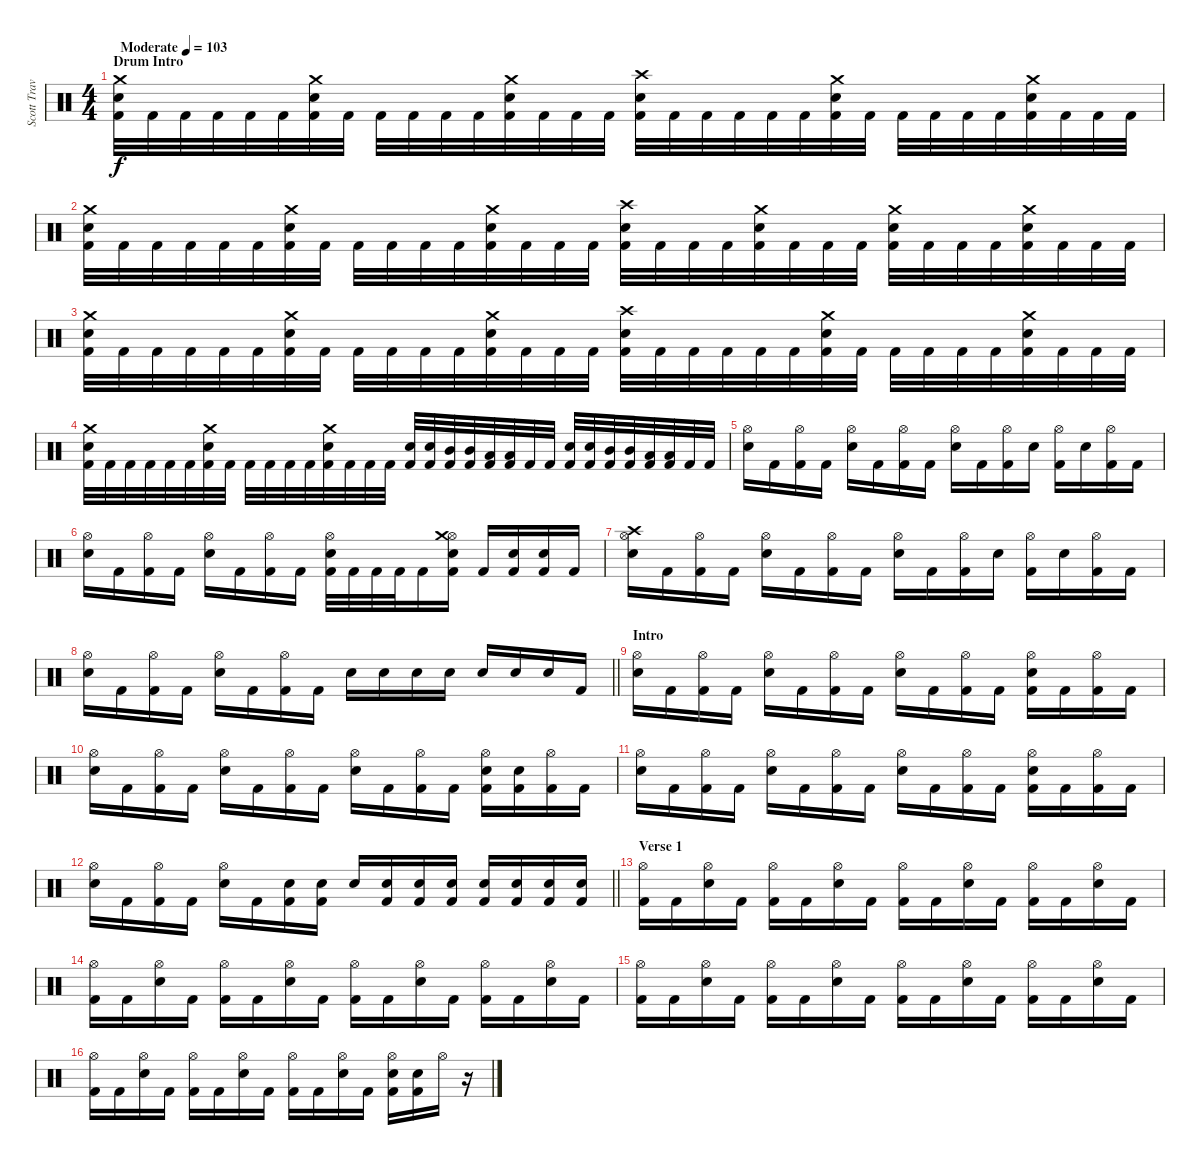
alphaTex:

\track ("Scott Travis" "Scott Trav") {instrument percussion}
\staff {score}
\articulation defaults
\ts (4 4)
\section ("" "Drum Intro")
\tempo (103 "Moderate")
\clef neutral
\ks c
("Crash medium (hit)" "Snare (hit) 2" "Kick (hit) 2").32{dy f} "Kick (hit) 2".32 "Kick (hit) 2".32 "Kick (hit) 2".32 "Kick (hit) 2".32 "Kick (hit) 2".32 ("Crash medium (hit)" "Snare (hit) 2" "Kick (hit) 2").32 "Kick (hit) 2".32 "Kick (hit) 2".32 "Kick (hit) 2".32 "Kick (hit) 2".32 "Kick (hit) 2".32 ("Crash medium (hit)" "Snare (hit) 2" "Kick (hit) 2").32 "Kick (hit) 2".32 "Kick (hit) 2".32 "Kick (hit) 2".32 ("Crash high (hit)" "Snare (hit) 2" "Kick (hit) 2").32 "Kick (hit) 2".32 "Kick (hit) 2".32 "Kick (hit) 2".32 "Kick (hit) 2".32 "Kick (hit) 2".32 ("Crash medium (hit)" "Snare (hit) 2" "Kick (hit) 2").32 "Kick (hit) 2".32 "Kick (hit) 2".32 "Kick (hit) 2".32 "Kick (hit) 2".32 "Kick (hit) 2".32 ("Crash medium (hit)" "Snare (hit) 2" "Kick (hit) 2").32 "Kick (hit) 2".32 "Kick (hit) 2".32 "Kick (hit) 2".32 |
("Crash medium (hit)" "Snare (hit) 2" "Kick (hit) 2").32 "Kick (hit) 2".32 "Kick (hit) 2".32 "Kick (hit) 2".32 "Kick (hit) 2".32 "Kick (hit) 2".32 ("Crash medium (hit)" "Snare (hit) 2" "Kick (hit) 2").32 "Kick (hit) 2".32 "Kick (hit) 2".32 "Kick (hit) 2".32 "Kick (hit) 2".32 "Kick (hit) 2".32 ("Crash medium (hit)" "Snare (hit) 2" "Kick (hit) 2").32 "Kick (hit) 2".32 "Kick (hit) 2".32 "Kick (hit) 2".32 ("Crash high (hit)" "Snare (hit) 2" "Kick (hit) 2").32 "Kick (hit) 2".32 "Kick (hit) 2".32 "Kick (hit) 2".32 ("Snare (hit) 2" "Crash medium (hit)" "Kick (hit) 2").32 "Kick (hit) 2".32 "Kick (hit) 2".32 "Kick (hit) 2".32 ("Crash medium (hit)" "Snare (hit) 2" "Kick (hit) 2").32 "Kick (hit) 2".32 "Kick (hit) 2".32 "Kick (hit) 2".32 ("Crash medium (hit)" "Snare (hit) 2" "Kick (hit) 2").32 "Kick (hit) 2".32 "Kick (hit) 2".32 "Kick (hit) 2".32 |
("Crash medium (hit)" "Snare (hit) 2" "Kick (hit) 2").32 "Kick (hit) 2".32 "Kick (hit) 2".32 "Kick (hit) 2".32 "Kick (hit) 2".32 "Kick (hit) 2".32 ("Crash medium (hit)" "Snare (hit) 2" "Kick (hit) 2").32 "Kick (hit) 2".32 "Kick (hit) 2".32 "Kick (hit) 2".32 "Kick (hit) 2".32 "Kick (hit) 2".32 ("Crash medium (hit)" "Snare (hit) 2" "Kick (hit) 2").32 "Kick (hit) 2".32 "Kick (hit) 2".32 "Kick (hit) 2".32 ("Crash high (hit)" "Snare (hit) 2" "Kick (hit) 2").32 "Kick (hit) 2".32 "Kick (hit) 2".32 "Kick (hit) 2".32 "Kick (hit) 2".32 "Kick (hit) 2".32 ("Crash medium (hit)" "Snare (hit) 2" "Kick (hit) 2").32 "Kick (hit) 2".32 "Kick (hit) 2".32 "Kick (hit) 2".32 "Kick (hit) 2".32 "Kick (hit) 2".32 ("Crash medium (hit)" "Snare (hit) 2" "Kick (hit) 2").32 "Kick (hit) 2".32 "Kick (hit) 2".32 "Kick (hit) 2".32 |
("Snare (hit) 2" "Crash medium (hit)" "Kick (hit) 2").32 "Kick (hit) 2".32 "Kick (hit) 2".32 "Kick (hit) 2".32 "Kick (hit) 2".32 "Kick (hit) 2".32 ("Snare (hit) 2" "Crash medium (hit)" "Kick (hit) 2").32 "Kick (hit) 2".32 "Kick (hit) 2".32 "Kick (hit) 2".32 "Kick (hit) 2".32 "Kick (hit) 2".32 ("Crash medium (hit)" "Snare (hit) 2" "Kick (hit) 2").32 "Kick (hit) 2".32 "Kick (hit) 2".32 "Kick (hit) 2".32 ("Snare (hit) 2" "Kick (hit) 2").32 ("Snare (hit) 2" "Kick (hit) 2").32 ("Mid Tom (hit)" "Kick (hit) 2").32 ("Mid Tom (hit)" "Kick (hit) 2").32 ("Low Tom (hit)" "Kick (hit) 2").32 ("Low Tom (hit)" "Kick (hit) 2").32 "Kick (hit) 2".32 "Kick (hit) 2".32 ("Snare (hit) 2" "Kick (hit) 2").32 ("Snare (hit) 2" "Kick (hit) 2").32 ("Mid Tom (hit)" "Kick (hit) 2").32 ("Mid Tom (hit)" "Kick (hit) 2").32 ("Low Tom (hit)" "Kick (hit) 2").32 ("Low Tom (hit)" "Kick (hit) 2").32 "Kick (hit) 2".32 "Kick (hit) 2".32 |
("Hi-Hat (open)" "Snare (hit) 2").16 "Kick (hit) 2".16 ("Hi-Hat (open)" "Kick (hit) 2").16 "Kick (hit) 2".16 ("Hi-Hat (open)" "Snare (hit) 2").16 "Kick (hit) 2".16 ("Hi-Hat (open)" "Kick (hit) 2").16 "Kick (hit) 2".16 ("Hi-Hat (open)" "Snare (hit) 2").16 "Kick (hit) 2".16 ("Hi-Hat (open)" "Kick (hit) 2").16 "Snare (hit) 2".16 ("Hi-Hat (open)" "Kick (hit) 2").16 "Snare (hit) 2".16 ("Hi-Hat (open)" "Kick (hit) 2").16 "Kick (hit) 2".16 |
("Hi-Hat (open)" "Snare (hit) 2").16 "Kick (hit) 2".16 ("Hi-Hat (open)" "Kick (hit) 2").16 "Kick (hit) 2".16 ("Hi-Hat (open)" "Snare (hit) 2").16 "Kick (hit) 2".16 ("Hi-Hat (open)" "Kick (hit) 2").16 "Kick (hit) 2".16 ("Hi-Hat (open)" "Snare (hit) 2" "Kick (hit) 2").32 "Kick (hit) 2".32 "Kick (hit) 2".32 "Kick (hit) 2".32 "Kick (hit) 2".16 ("Hi-Hat (open)" "Crash medium (hit)" "Snare (hit) 2" "Kick (hit) 2").16 "Kick (hit) 2".16 ("Snare (hit) 2" "Kick (hit) 2").16 ("Snare (hit) 2" "Kick (hit) 2").16 "Kick (hit) 2".16 |
("Hi-Hat (open)" "Crash high (hit)" "Snare (hit) 2").16 "Kick (hit) 2".16 ("Hi-Hat (open)" "Kick (hit) 2").16 "Kick (hit) 2".16 ("Hi-Hat (open)" "Snare (hit) 2").16 "Kick (hit) 2".16 ("Hi-Hat (open)" "Kick (hit) 2").16 "Kick (hit) 2".16 ("Hi-Hat (open)" "Snare (hit) 2").16 "Kick (hit) 2".16 ("Hi-Hat (open)" "Kick (hit) 2").16 "Snare (hit) 2".16 ("Hi-Hat (open)" "Kick (hit) 2").16 "Snare (hit) 2".16 ("Hi-Hat (open)" "Kick (hit) 2").16 "Kick (hit) 2".16 |
\barLineRight lightlight
("Hi-Hat (open)" "Snare (hit) 2").16 "Kick (hit) 2".16 ("Hi-Hat (open)" "Kick (hit) 2").16 "Kick (hit) 2".16 ("Hi-Hat (open)" "Snare (hit) 2").16 "Kick (hit) 2".16 ("Hi-Hat (open)" "Kick (hit) 2").16 "Kick (hit) 2".16 "Snare (hit) 2".16 "Snare (hit) 2".16 "Snare (hit) 2".16 "Snare (hit) 2".16 "Snare (hit) 2".16 "Snare (hit) 2".16 "Snare (hit) 2".16 "Kick (hit) 2".16 |
\section ("" "Intro")
("Hi-Hat (open)" "Snare (hit) 2").16 "Kick (hit) 2".16 ("Hi-Hat (open)" "Kick (hit) 2").16 "Kick (hit) 2".16 ("Hi-Hat (open)" "Snare (hit) 2").16 "Kick (hit) 2".16 ("Hi-Hat (open)" "Kick (hit) 2").16 "Kick (hit) 2".16 ("Hi-Hat (open)" "Snare (hit) 2").16 "Kick (hit) 2".16 ("Hi-Hat (open)" "Kick (hit) 2").16 "Kick (hit) 2".16 ("Hi-Hat (open)" "Snare (hit) 2" "Kick (hit) 2").16 "Kick (hit) 2".16 ("Hi-Hat (open)" "Kick (hit) 2").16 "Kick (hit) 2".16 |
("Hi-Hat (open)" "Snare (hit) 2").16 "Kick (hit) 2".16 ("Hi-Hat (open)" "Kick (hit) 2").16 "Kick (hit) 2".16 ("Hi-Hat (open)" "Snare (hit) 2").16 "Kick (hit) 2".16 ("Hi-Hat (open)" "Kick (hit) 2").16 "Kick (hit) 2".16 ("Hi-Hat (open)" "Snare (hit) 2").16 "Kick (hit) 2".16 ("Hi-Hat (open)" "Kick (hit) 2").16 "Kick (hit) 2".16 ("Hi-Hat (open)" "Snare (hit) 2" "Kick (hit) 2").16 ("Snare (hit) 2" "Kick (hit) 2").16 ("Hi-Hat (open)" "Kick (hit) 2").16 "Kick (hit) 2".16 |
("Hi-Hat (open)" "Snare (hit) 2").16 "Kick (hit) 2".16 ("Hi-Hat (open)" "Kick (hit) 2").16 "Kick (hit) 2".16 ("Hi-Hat (open)" "Snare (hit) 2").16 "Kick (hit) 2".16 ("Hi-Hat (open)" "Kick (hit) 2").16 "Kick (hit) 2".16 ("Hi-Hat (open)" "Snare (hit) 2").16 "Kick (hit) 2".16 ("Hi-Hat (open)" "Kick (hit) 2").16 "Kick (hit) 2".16 ("Hi-Hat (open)" "Snare (hit) 2" "Kick (hit) 2").16 "Kick (hit) 2".16 ("Hi-Hat (open)" "Kick (hit) 2").16 "Kick (hit) 2".16 |
\barLineRight lightlight
("Hi-Hat (open)" "Snare (hit) 2").16 "Kick (hit) 2".16 ("Hi-Hat (open)" "Kick (hit) 2").16 "Kick (hit) 2".16 ("Hi-Hat (open)" "Snare (hit) 2").16 "Kick (hit) 2".16 ("Snare (hit) 2" "Kick (hit) 2").16 ("Snare (hit) 2" "Kick (hit) 2").16 "Snare (hit) 2".16 ("Snare (hit) 2" "Kick (hit) 2").16 ("Snare (hit) 2" "Kick (hit) 2").16 ("Snare (hit) 2" "Kick (hit) 2").16 ("Snare (hit) 2" "Kick (hit) 2").16 ("Snare (hit) 2" "Kick (hit) 2").16 ("Snare (hit) 2" "Kick (hit) 2").16 ("Snare (hit) 2" "Kick (hit) 2").16 |
\section ("" "Verse 1")
("Hi-Hat (open)" "Kick (hit) 2").16 "Kick (hit) 2".16 ("Hi-Hat (open)" "Snare (hit) 2").16 "Kick (hit) 2".16 ("Hi-Hat (open)" "Kick (hit) 2").16 "Kick (hit) 2".16 ("Hi-Hat (open)" "Snare (hit) 2").16 "Kick (hit) 2".16 ("Hi-Hat (open)" "Kick (hit) 2").16 "Kick (hit) 2".16 ("Hi-Hat (open)" "Snare (hit) 2").16 "Kick (hit) 2".16 ("Hi-Hat (open)" "Kick (hit) 2").16 "Kick (hit) 2".16 ("Hi-Hat (open)" "Snare (hit) 2").16 "Kick (hit) 2".16 |
("Hi-Hat (open)" "Kick (hit) 2").16 "Kick (hit) 2".16 ("Hi-Hat (open)" "Snare (hit) 2").16 "Kick (hit) 2".16 ("Hi-Hat (open)" "Kick (hit) 2").16 "Kick (hit) 2".16 ("Hi-Hat (open)" "Snare (hit) 2").16 "Kick (hit) 2".16 ("Hi-Hat (open)" "Kick (hit) 2").16 "Kick (hit) 2".16 ("Hi-Hat (open)" "Snare (hit) 2").16 "Kick (hit) 2".16 ("Hi-Hat (open)" "Kick (hit) 2").16 "Kick (hit) 2".16 ("Hi-Hat (open)" "Snare (hit) 2").16 "Kick (hit) 2".16 |
("Hi-Hat (open)" "Kick (hit) 2").16 "Kick (hit) 2".16 ("Hi-Hat (open)" "Snare (hit) 2").16 "Kick (hit) 2".16 ("Hi-Hat (open)" "Kick (hit) 2").16 "Kick (hit) 2".16 ("Hi-Hat (open)" "Snare (hit) 2").16 "Kick (hit) 2".16 ("Hi-Hat (open)" "Kick (hit) 2").16 "Kick (hit) 2".16 ("Hi-Hat (open)" "Snare (hit) 2").16 "Kick (hit) 2".16 ("Hi-Hat (open)" "Kick (hit) 2").16 "Kick (hit) 2".16 ("Hi-Hat (open)" "Snare (hit) 2").16 "Kick (hit) 2".16 |
("Hi-Hat (open)" "Kick (hit) 2").16 "Kick (hit) 2".16 ("Hi-Hat (open)" "Snare (hit) 2").16 "Kick (hit) 2".16 ("Hi-Hat (open)" "Kick (hit) 2").16 "Kick (hit) 2".16 ("Hi-Hat (open)" "Snare (hit) 2").16 "Kick (hit) 2".16 ("Hi-Hat (open)" "Kick (hit) 2").16 "Kick (hit) 2".16 ("Hi-Hat (open)" "Snare (hit) 2").16 "Kick (hit) 2".16 ("Hi-Hat (open)" "Snare (hit) 2" "Kick (hit) 2").16 ("Snare (hit) 2" "Kick (hit) 2").16 "Hi-Hat (open)".16 r.16
